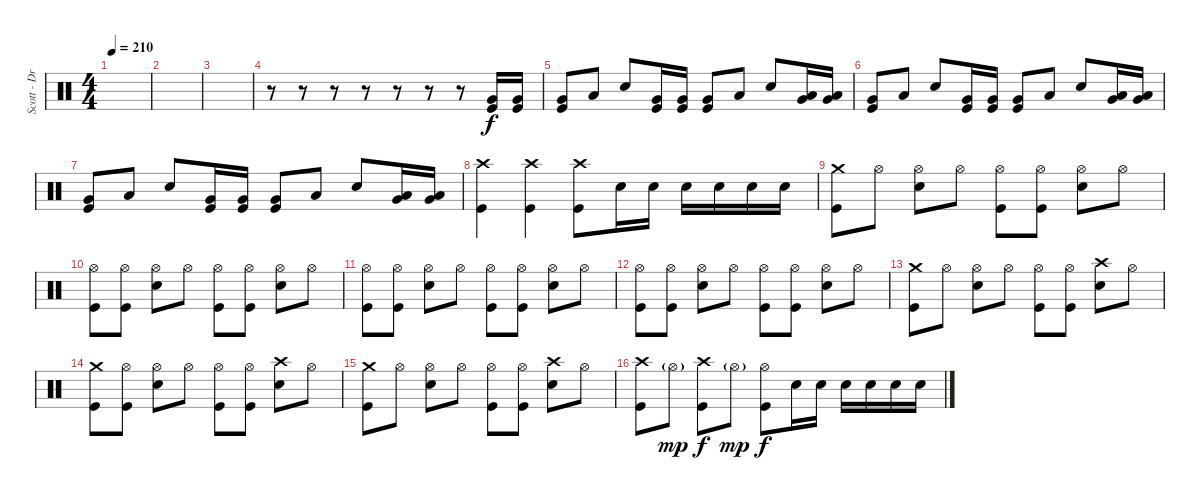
\track ("Scott - Drums" "Scott - Dr") {instrument percussion}
\staff {score}
\articulation defaults
\ts (4 4)
\tempo 210
\clef neutral
\ks c
|
|
|
r.8 r.8 r.8 r.8 r.8 r.8 r.8 ("Kick (hit)" "Very Low Tom (hit)").16 ("Kick (hit)" "Very Low Tom (hit)").16 |
("Kick (hit)" "Very Low Tom (hit)").8 "Low Tom (hit)".8 "Electric Snare (hit)".8 ("Kick (hit)" "Very Low Tom (hit)").16 ("Kick (hit)" "Very Low Tom (hit)").16 ("Kick (hit)" "Very Low Tom (hit)").8 "Low Tom (hit)".8 "Electric Snare (hit)".8 ("Low Tom (hit)" "Very Low Tom (hit)").16 ("Low Tom (hit)" "Very Low Tom (hit)").16 |
("Kick (hit)" "Very Low Tom (hit)").8 "Low Tom (hit)".8 "Electric Snare (hit)".8 ("Kick (hit)" "Very Low Tom (hit)").16 ("Kick (hit)" "Very Low Tom (hit)").16 ("Kick (hit)" "Very Low Tom (hit)").8 "Low Tom (hit)".8 "Electric Snare (hit)".8 ("Low Tom (hit)" "Very Low Tom (hit)").16 ("Low Tom (hit)" "Very Low Tom (hit)").16 |
("Kick (hit)" "Very Low Tom (hit)").8 "Low Tom (hit)".8 "Electric Snare (hit)".8 ("Kick (hit)" "Very Low Tom (hit)").16 ("Kick (hit)" "Very Low Tom (hit)").16 ("Kick (hit)" "Very Low Tom (hit)").8 "Low Tom (hit)".8 "Electric Snare (hit)".8 ("Low Tom (hit)" "Very Low Tom (hit)").16 ("Low Tom (hit)" "Very Low Tom (hit)").16 |
("Crash high (hit)" "Kick (hit)").4 ("Crash high (hit)" "Kick (hit)").4 ("Crash high (hit)" "Kick (hit)").8 "Electric Snare (hit)".16 "Electric Snare (hit)".16 "Electric Snare (hit)".16 "Electric Snare (hit)".16 "Electric Snare (hit)".16 "Electric Snare (hit)".16 |
("Crash medium (hit)" "Kick (hit)").8 "Hi-Hat (open)".8 ("Hi-Hat (open)" "Electric Snare (hit)").8 "Hi-Hat (open)".8 ("Hi-Hat (open)" "Kick (hit)").8 ("Hi-Hat (open)" "Kick (hit)").8 ("Hi-Hat (open)" "Electric Snare (hit)").8 "Hi-Hat (open)".8 |
("Hi-Hat (open)" "Kick (hit)").8 ("Hi-Hat (open)" "Kick (hit)").8 ("Hi-Hat (open)" "Electric Snare (hit)").8 "Hi-Hat (open)".8 ("Hi-Hat (open)" "Kick (hit)").8 ("Hi-Hat (open)" "Kick (hit)").8 ("Hi-Hat (open)" "Electric Snare (hit)").8 "Hi-Hat (open)".8 |
("Hi-Hat (open)" "Kick (hit)").8 ("Hi-Hat (open)" "Kick (hit)").8 ("Hi-Hat (open)" "Electric Snare (hit)").8 "Hi-Hat (open)".8 ("Hi-Hat (open)" "Kick (hit)").8 ("Hi-Hat (open)" "Kick (hit)").8 ("Hi-Hat (open)" "Electric Snare (hit)").8 "Hi-Hat (open)".8 |
("Hi-Hat (open)" "Kick (hit)").8 ("Hi-Hat (open)" "Kick (hit)").8 ("Hi-Hat (open)" "Electric Snare (hit)").8 "Hi-Hat (open)".8 ("Hi-Hat (open)" "Kick (hit)").8 ("Hi-Hat (open)" "Kick (hit)").8 ("Hi-Hat (open)" "Electric Snare (hit)").8 "Hi-Hat (open)".8 |
("Crash medium (hit)" "Kick (hit)").8 "Hi-Hat (open)".8 ("Hi-Hat (open)" "Electric Snare (hit)").8 "Hi-Hat (open)".8 ("Hi-Hat (open)" "Kick (hit)").8 ("Hi-Hat (open)" "Kick (hit)").8 ("Crash high (hit)" "Electric Snare (hit)").8 "Hi-Hat (open)".8 |
("Crash medium (hit)" "Kick (hit)").8 ("Hi-Hat (open)" "Kick (hit)").8 ("Hi-Hat (open)" "Electric Snare (hit)").8 "Hi-Hat (open)".8 ("Hi-Hat (open)" "Kick (hit)").8 ("Hi-Hat (open)" "Kick (hit)").8 ("Crash high (hit)" "Electric Snare (hit)").8 "Hi-Hat (open)".8 |
("Crash medium (hit)" "Kick (hit)").8 "Hi-Hat (open)".8 ("Hi-Hat (open)" "Electric Snare (hit)").8 "Hi-Hat (open)".8 ("Hi-Hat (open)" "Kick (hit)").8 ("Hi-Hat (open)" "Kick (hit)").8 ("Crash high (hit)" "Electric Snare (hit)").8 "Hi-Hat (open)".8 |
("Crash high (hit)" "Kick (hit)").8 "Hi-Hat (open)"{g}.8{dy mp} ("Crash high (hit)" "Kick (hit)").8{dy f} "Hi-Hat (open)"{g}.8{dy mp} ("Hi-Hat (open)" "Kick (hit)").8{dy f} "Electric Snare (hit)".16 "Electric Snare (hit)".16 "Electric Snare (hit)".16 "Electric Snare (hit)".16 "Electric Snare (hit)".16 "Electric Snare (hit)".16
